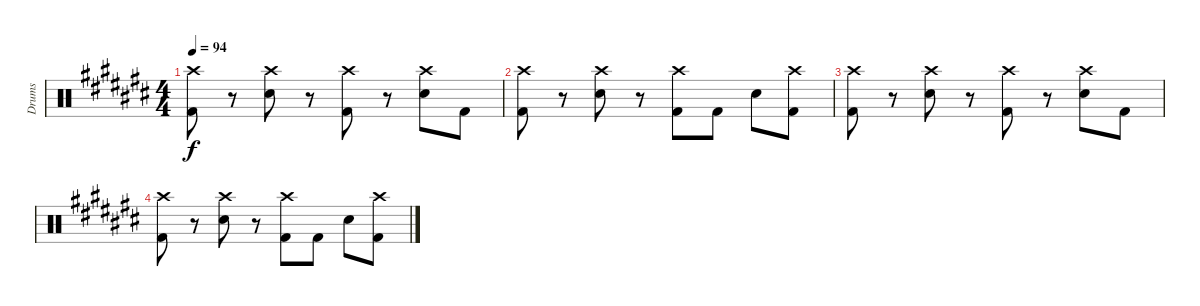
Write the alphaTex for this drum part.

\track ("Drums" "Drums") {instrument percussion}
\staff {score}
\articulation defaults
\ts (4 4)
\tempo 94
\clef neutral
\ks c#
("Crash high (hit)" "Kick (hit) 2").8{dy f} r.8 ("Crash high (hit)" "Snare (hit) 2").8 r.8 ("Crash high (hit)" "Kick (hit) 2").8 r.8 ("Crash high (hit)" "Snare (hit) 2").8 "Kick (hit) 2".8 |
("Crash high (hit)" "Kick (hit) 2").8 r.8 ("Crash high (hit)" "Snare (hit) 2").8 r.8 ("Crash high (hit)" "Kick (hit) 2").8 "Kick (hit) 2".8 "Snare (hit) 2".8 ("Crash high (hit)" "Kick (hit) 2").8 |
("Crash high (hit)" "Kick (hit) 2").8 r.8 ("Crash high (hit)" "Snare (hit) 2").8 r.8 ("Crash high (hit)" "Kick (hit) 2").8 r.8 ("Crash high (hit)" "Snare (hit) 2").8 "Kick (hit) 2".8 |
("Crash high (hit)" "Kick (hit) 2").8 r.8 ("Crash high (hit)" "Snare (hit) 2").8 r.8 ("Crash high (hit)" "Kick (hit) 2").8 "Kick (hit) 2".8 "Snare (hit) 2".8 ("Crash high (hit)" "Kick (hit) 2").8
